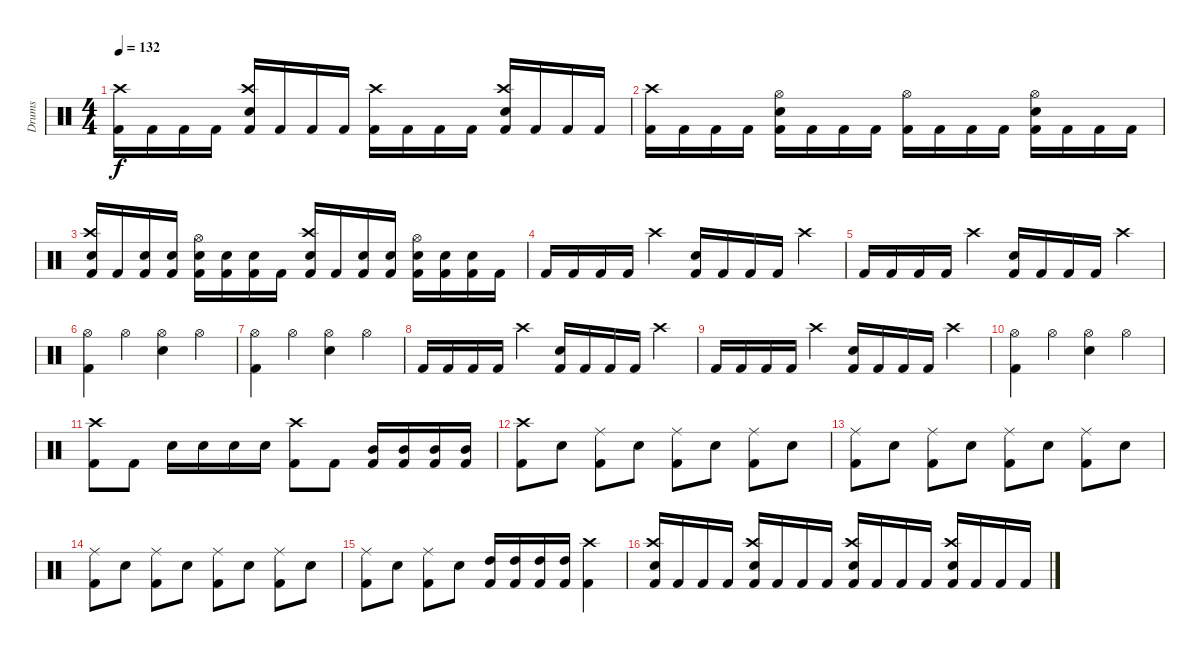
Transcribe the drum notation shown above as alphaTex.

\track ("Drums" "Drums") {instrument percussion}
\staff {score}
\articulation defaults
\ts (4 4)
\tempo 132
\clef neutral
\ks c
("Kick (hit) 2" "Crash high (hit)").16{dy f} "Kick (hit) 2".16 "Kick (hit) 2".16 "Kick (hit) 2".16 ("Kick (hit) 2" "Snare (hit) 2" "Crash high (hit)").16 "Kick (hit) 2".16 "Kick (hit) 2".16 "Kick (hit) 2".16 ("Kick (hit) 2" "Crash high (hit)").16 "Kick (hit) 2".16 "Kick (hit) 2".16 "Kick (hit) 2".16 ("Kick (hit) 2" "Snare (hit) 2" "Crash high (hit)").16 "Kick (hit) 2".16 "Kick (hit) 2".16 "Kick (hit) 2".16 |
("Kick (hit) 2" "Crash high (hit)").16 "Kick (hit) 2".16 "Kick (hit) 2".16 "Kick (hit) 2".16 ("Kick (hit) 2" "Snare (hit) 2" "Hi-Hat (open)").16 "Kick (hit) 2".16 "Kick (hit) 2".16 "Kick (hit) 2".16 ("Kick (hit) 2" "Hi-Hat (open)").16 "Kick (hit) 2".16 "Kick (hit) 2".16 "Kick (hit) 2".16 ("Kick (hit) 2" "Snare (hit) 2" "Hi-Hat (open)").16 "Kick (hit) 2".16 "Kick (hit) 2".16 "Kick (hit) 2".16 |
("Kick (hit) 2" "Snare (hit) 2" "Crash high (hit)").16 "Kick (hit) 2".16 ("Kick (hit) 2" "Snare (hit) 2").16 ("Kick (hit) 2" "Snare (hit) 2").16 ("Kick (hit) 2" "Snare (hit) 2" "Hi-Hat (open)").16 ("Kick (hit) 2" "Snare (hit) 2").16 ("Kick (hit) 2" "Snare (hit) 2").16 "Kick (hit) 2".16 ("Kick (hit) 2" "Snare (hit) 2" "Crash high (hit)").16 "Kick (hit) 2".16 ("Kick (hit) 2" "Snare (hit) 2").16 ("Kick (hit) 2" "Snare (hit) 2").16 ("Kick (hit) 2" "Snare (hit) 2" "Hi-Hat (open)").16 ("Kick (hit) 2" "Snare (hit) 2").16 ("Kick (hit) 2" "Snare (hit) 2").16 "Kick (hit) 2".16 |
"Kick (hit) 2".16 "Kick (hit) 2".16 "Kick (hit) 2".16 "Kick (hit) 2".16 "Crash high (hit)".4 ("Kick (hit) 2" "Snare (hit) 2").16 "Kick (hit) 2".16 "Kick (hit) 2".16 "Kick (hit) 2".16 "Crash high (hit)".4 |
"Kick (hit) 2".16 "Kick (hit) 2".16 "Kick (hit) 2".16 "Kick (hit) 2".16 "Crash high (hit)".4 ("Kick (hit) 2" "Snare (hit) 2").16 "Kick (hit) 2".16 "Kick (hit) 2".16 "Kick (hit) 2".16 "Crash high (hit)".4 |
("Kick (hit) 2" "Hi-Hat (open)").4 "Hi-Hat (open)".4 ("Snare (hit) 2" "Hi-Hat (open)").4 "Hi-Hat (open)".4 |
("Kick (hit) 2" "Hi-Hat (open)").4 "Hi-Hat (open)".4 ("Snare (hit) 2" "Hi-Hat (open)").4 "Hi-Hat (open)".4 |
"Kick (hit) 2".16 "Kick (hit) 2".16 "Kick (hit) 2".16 "Kick (hit) 2".16 "Crash high (hit)".4 ("Kick (hit) 2" "Snare (hit) 2").16 "Kick (hit) 2".16 "Kick (hit) 2".16 "Kick (hit) 2".16 "Crash high (hit)".4 |
"Kick (hit) 2".16 "Kick (hit) 2".16 "Kick (hit) 2".16 "Kick (hit) 2".16 "Crash high (hit)".4 ("Kick (hit) 2" "Snare (hit) 2").16 "Kick (hit) 2".16 "Kick (hit) 2".16 "Kick (hit) 2".16 "Crash high (hit)".4 |
("Kick (hit) 2" "Hi-Hat (open)").4 "Hi-Hat (open)".4 ("Snare (hit) 2" "Hi-Hat (open)").4 "Hi-Hat (open)".4 |
("Kick (hit) 2" "Crash high (hit)").8 "Kick (hit) 2".8 "Snare (hit) 2".16 "Snare (hit) 2".16 "Snare (hit) 2".16 "Snare (hit) 2".16 ("Kick (hit) 2" "Crash high (hit)").8 "Kick (hit) 2".8 ("Kick (hit) 2" "Mid Tom (hit)").16 ("Kick (hit) 2" "Mid Tom (hit)").16 ("Kick (hit) 2" "Mid Tom (hit)").16 ("Kick (hit) 2" "Mid Tom (hit)").16 |
("Kick (hit) 2" "Crash high (hit)").8 "Snare (hit) 2".8 ("Kick (hit) 2" "Ride (middle)").8 "Snare (hit) 2".8 ("Kick (hit) 2" "Ride (middle)").8 "Snare (hit) 2".8 ("Kick (hit) 2" "Ride (middle)").8 "Snare (hit) 2".8 |
("Kick (hit) 2" "Ride (middle)").8 "Snare (hit) 2".8 ("Kick (hit) 2" "Ride (middle)").8 "Snare (hit) 2".8 ("Kick (hit) 2" "Ride (middle)").8 "Snare (hit) 2".8 ("Kick (hit) 2" "Ride (middle)").8 "Snare (hit) 2".8 |
("Kick (hit) 2" "Ride (middle)").8 "Snare (hit) 2".8 ("Kick (hit) 2" "Ride (middle)").8 "Snare (hit) 2".8 ("Kick (hit) 2" "Ride (middle)").8 "Snare (hit) 2".8 ("Kick (hit) 2" "Ride (middle)").8 "Snare (hit) 2".8 |
("Kick (hit) 2" "Ride (middle)").8 "Snare (hit) 2".8 ("Kick (hit) 2" "Ride (middle)").8 "Snare (hit) 2".8 ("Kick (hit) 2" "High Tom (hit)").16 ("Kick (hit) 2" "High Tom (hit)").16 ("Kick (hit) 2" "High Tom (hit)").16 ("Kick (hit) 2" "High Tom (hit)").16 ("Kick (hit) 2" "Crash high (hit)").4 |
("Kick (hit) 2" "Snare (hit) 2" "Crash high (hit)").16 "Kick (hit) 2".16 "Kick (hit) 2".16 "Kick (hit) 2".16 ("Kick (hit) 2" "Snare (hit) 2" "Crash high (hit)").16 "Kick (hit) 2".16 "Kick (hit) 2".16 "Kick (hit) 2".16 ("Kick (hit) 2" "Snare (hit) 2" "Crash high (hit)").16 "Kick (hit) 2".16 "Kick (hit) 2".16 "Kick (hit) 2".16 ("Kick (hit) 2" "Snare (hit) 2" "Crash high (hit)").16 "Kick (hit) 2".16 "Kick (hit) 2".16 "Kick (hit) 2".16
